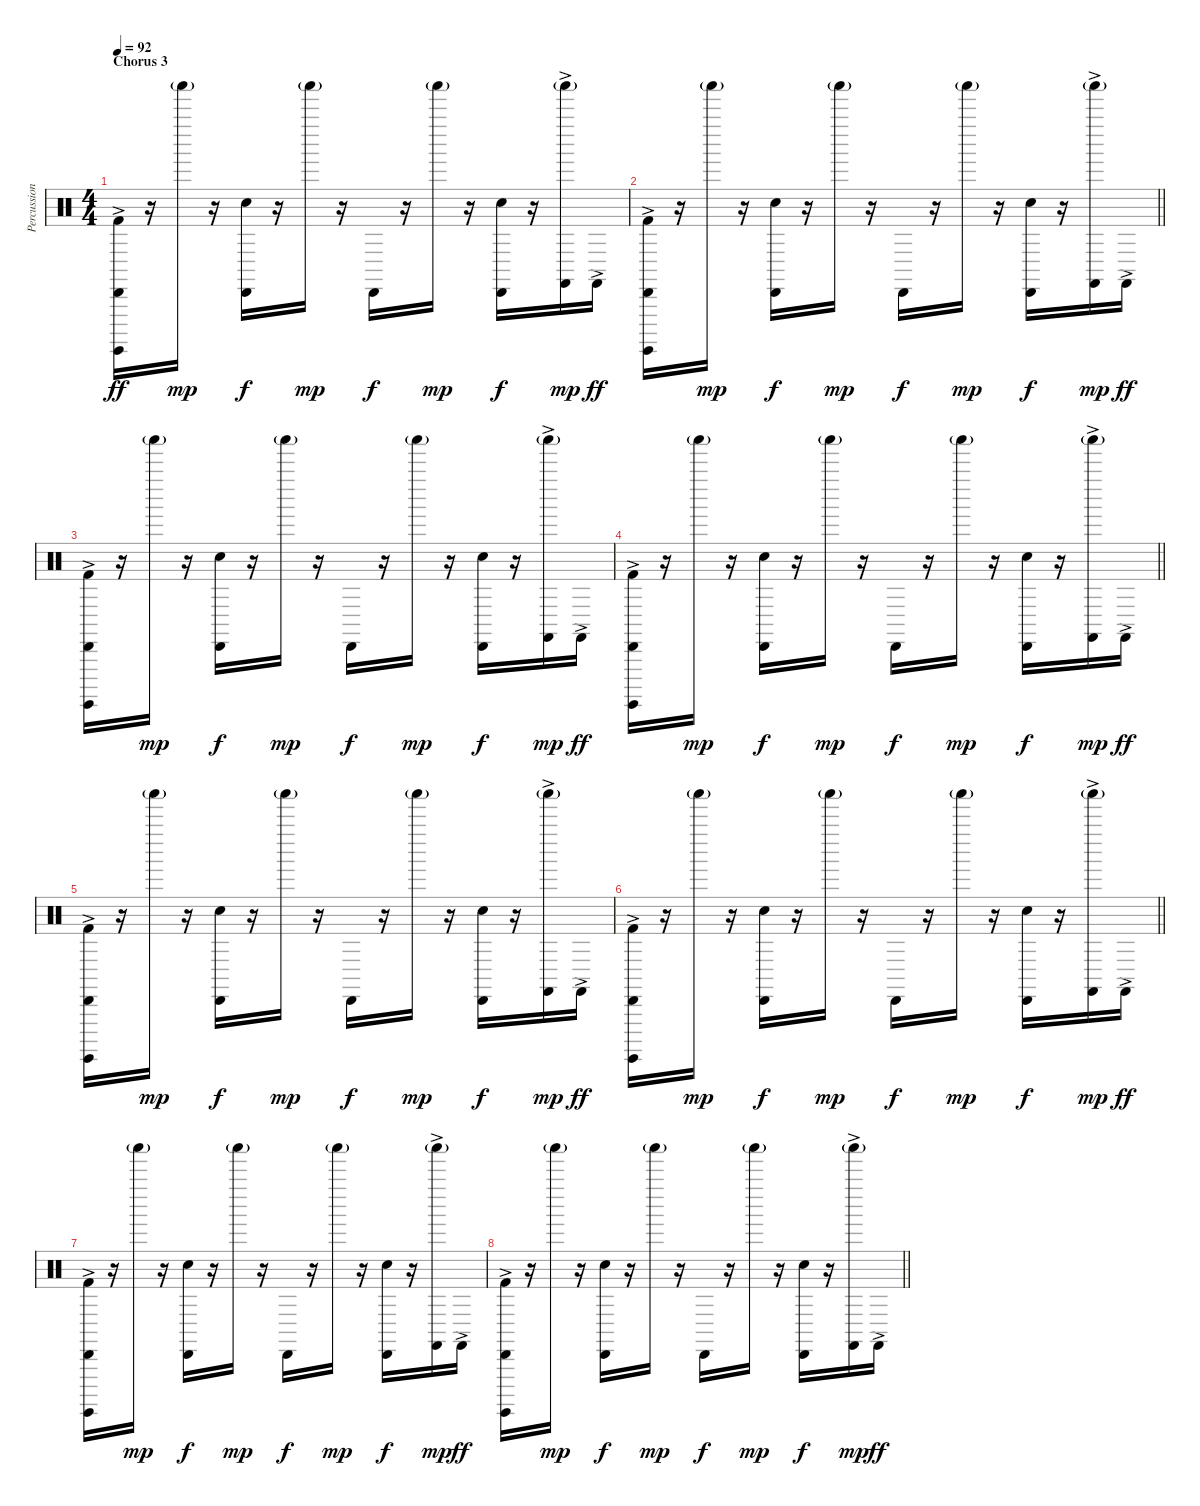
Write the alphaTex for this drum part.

\track ("Percussion" "Percussion") {instrument percussion}
\staff {score}
\articulation defaults
\ts (4 4)
\section ("" "Chorus 3")
\tempo 92
\clef neutral
\ks c
("Kick (hit) 2" "Surdo (hit)"{ac} "Cabasa (hit)").16{dy ff} r.16 "Shaker (hit)"{g}.16{dy mp} r.16 ("Snare (hit) 2" "Cabasa (hit)").16{dy f} r.16 "Shaker (hit)"{g}.16{dy mp} r.16 "Cabasa (hit)".16{dy f} r.16 "Shaker (hit)"{g}.16{dy mp} r.16 ("Snare (hit) 2" "Cabasa (hit)").16{dy f} r.16 ("Castanets (hit)"{ac} "Shaker (hit)"{g}).16{dy mp} "Castanets (hit)"{ac}.16{dy ff} |
\barLineRight lightlight
("Kick (hit) 2" "Surdo (hit)"{ac} "Cabasa (hit)").16 r.16 "Shaker (hit)"{g}.16{dy mp} r.16 ("Snare (hit) 2" "Cabasa (hit)").16{dy f} r.16 "Shaker (hit)"{g}.16{dy mp} r.16 "Cabasa (hit)".16{dy f} r.16 "Shaker (hit)"{g}.16{dy mp} r.16 ("Snare (hit) 2" "Cabasa (hit)").16{dy f} r.16 ("Castanets (hit)"{ac} "Shaker (hit)"{g}).16{dy mp} "Castanets (hit)"{ac}.16{dy ff} |
("Kick (hit) 2" "Surdo (hit)"{ac} "Cabasa (hit)").16 r.16 "Shaker (hit)"{g}.16{dy mp} r.16 ("Snare (hit) 2" "Cabasa (hit)").16{dy f} r.16 "Shaker (hit)"{g}.16{dy mp} r.16 "Cabasa (hit)".16{dy f} r.16 "Shaker (hit)"{g}.16{dy mp} r.16 ("Snare (hit) 2" "Cabasa (hit)").16{dy f} r.16 ("Castanets (hit)"{ac} "Shaker (hit)"{g}).16{dy mp} "Castanets (hit)"{ac}.16{dy ff} |
\barLineRight lightlight
("Kick (hit) 2" "Surdo (hit)"{ac} "Cabasa (hit)").16 r.16 "Shaker (hit)"{g}.16{dy mp} r.16 ("Snare (hit) 2" "Cabasa (hit)").16{dy f} r.16 "Shaker (hit)"{g}.16{dy mp} r.16 "Cabasa (hit)".16{dy f} r.16 "Shaker (hit)"{g}.16{dy mp} r.16 ("Snare (hit) 2" "Cabasa (hit)").16{dy f} r.16 ("Castanets (hit)"{ac} "Shaker (hit)"{g}).16{dy mp} "Castanets (hit)"{ac}.16{dy ff} |
("Kick (hit) 2" "Surdo (hit)"{ac} "Cabasa (hit)").16 r.16 "Shaker (hit)"{g}.16{dy mp} r.16 ("Snare (hit) 2" "Cabasa (hit)").16{dy f} r.16 "Shaker (hit)"{g}.16{dy mp} r.16 "Cabasa (hit)".16{dy f} r.16 "Shaker (hit)"{g}.16{dy mp} r.16 ("Snare (hit) 2" "Cabasa (hit)").16{dy f} r.16 ("Castanets (hit)"{ac} "Shaker (hit)"{g}).16{dy mp} "Castanets (hit)"{ac}.16{dy ff} |
\barLineRight lightlight
("Kick (hit) 2" "Surdo (hit)"{ac} "Cabasa (hit)").16 r.16 "Shaker (hit)"{g}.16{dy mp} r.16 ("Snare (hit) 2" "Cabasa (hit)").16{dy f} r.16 "Shaker (hit)"{g}.16{dy mp} r.16 "Cabasa (hit)".16{dy f} r.16 "Shaker (hit)"{g}.16{dy mp} r.16 ("Snare (hit) 2" "Cabasa (hit)").16{dy f} r.16 ("Castanets (hit)"{ac} "Shaker (hit)"{g}).16{dy mp} "Castanets (hit)"{ac}.16{dy ff} |
("Kick (hit) 2" "Surdo (hit)"{ac} "Cabasa (hit)").16 r.16 "Shaker (hit)"{g}.16{dy mp} r.16 ("Snare (hit) 2" "Cabasa (hit)").16{dy f} r.16 "Shaker (hit)"{g}.16{dy mp} r.16 "Cabasa (hit)".16{dy f} r.16 "Shaker (hit)"{g}.16{dy mp} r.16 ("Snare (hit) 2" "Cabasa (hit)").16{dy f} r.16 ("Castanets (hit)"{ac} "Shaker (hit)"{g}).16{dy mp} "Castanets (hit)"{ac}.16{dy ff} |
\barLineRight lightlight
("Kick (hit) 2" "Surdo (hit)"{ac} "Cabasa (hit)").16 r.16 "Shaker (hit)"{g}.16{dy mp} r.16 ("Snare (hit) 2" "Cabasa (hit)").16{dy f} r.16 "Shaker (hit)"{g}.16{dy mp} r.16 "Cabasa (hit)".16{dy f} r.16 "Shaker (hit)"{g}.16{dy mp} r.16 ("Snare (hit) 2" "Cabasa (hit)").16{dy f} r.16 ("Castanets (hit)"{ac} "Shaker (hit)"{g}).16{dy mp} "Castanets (hit)"{ac}.16{dy ff}
